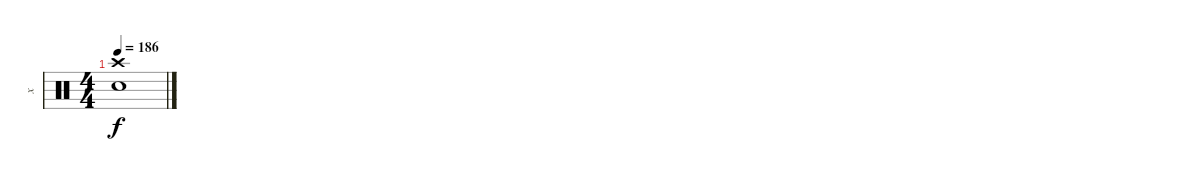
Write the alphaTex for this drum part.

\track ("x" "x") {instrument percussion}
\staff {score}
\articulation defaults
\ts (4 4)
\tempo 186
\clef neutral
\ks c
("Crash high (hit)" "Snare (hit) 2").1{dy f}
